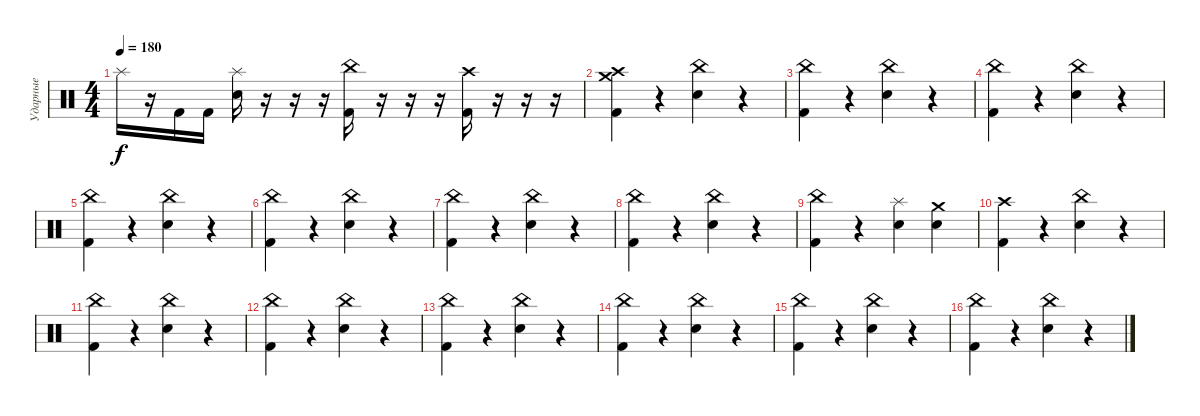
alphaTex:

\track ("Ударные" "Ударные") {instrument percussion}
\staff {score}
\articulation defaults
\ts (4 4)
\tempo 180
\clef neutral
\ks c "Splash (hit)".16{dy f}
r.16 "Kick (hit) 2".16 "Kick (hit) 2".16 ("Electric Snare (hit)" "Splash (hit)").16 r.16 r.16 r.16 ("Kick (hit) 2" "China (hit)").16 r.16 r.16 r.16 ("Kick (hit) 2" "Crash high (hit)").16 r.16 r.16 r.16 |
("Kick (hit) 2" "Crash high (hit)" "Crash medium (hit)").4 r.4 ("Electric Snare (hit)" "China (hit)").4 r.4 |
("Kick (hit) 2" "China (hit)").4 r.4 ("Electric Snare (hit)" "China (hit)").4 r.4 |
("Kick (hit) 2" "China (hit)").4 r.4 ("Electric Snare (hit)" "China (hit)").4 r.4 |
("Kick (hit) 2" "China (hit)").4 r.4 ("Electric Snare (hit)" "China (hit)").4 r.4 |
("Kick (hit) 2" "China (hit)").4 r.4 ("Electric Snare (hit)" "China (hit)").4 r.4 |
("Kick (hit) 2" "China (hit)").4 r.4 ("Electric Snare (hit)" "China (hit)").4 r.4 |
("Kick (hit) 2" "China (hit)").4 r.4 ("Electric Snare (hit)" "China (hit)").4 r.4 |
("Kick (hit) 2" "China (hit)").4 r.4 ("Electric Snare (hit)" "Splash (hit)").4 ("Electric Snare (hit)" "Crash medium (hit)").4 |
("Kick (hit) 2" "Crash high (hit)").4 r.4 ("Electric Snare (hit)" "China (hit)").4 r.4 |
("Kick (hit) 2" "China (hit)").4 r.4 ("Electric Snare (hit)" "China (hit)").4 r.4 |
("Kick (hit) 2" "China (hit)").4 r.4 ("Electric Snare (hit)" "China (hit)").4 r.4 |
("Kick (hit) 2" "China (hit)").4 r.4 ("Electric Snare (hit)" "China (hit)").4 r.4 |
("Kick (hit) 2" "China (hit)").4 r.4 ("Electric Snare (hit)" "China (hit)").4 r.4 |
("Kick (hit) 2" "China (hit)").4 r.4 ("Electric Snare (hit)" "China (hit)").4 r.4 |
("Kick (hit) 2" "China (hit)").4 r.4 ("Electric Snare (hit)" "China (hit)").4 r.4
